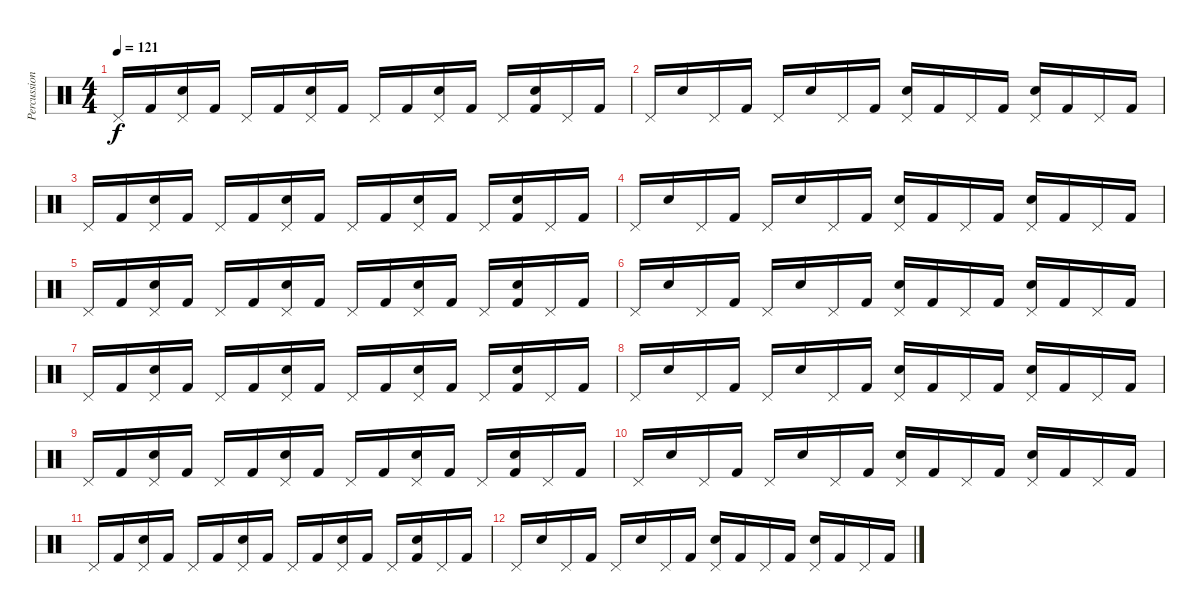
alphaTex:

\track ("Percussion" "Percussion") {instrument percussion}
\staff {score}
\articulation defaults
\ts (4 4)
\tempo 121
\clef neutral
\ks c "Pedal Hi-Hat (hit)".16{dy f} "Kick (hit) 2".16
("Pedal Hi-Hat (hit)" "Electric Snare (hit)").16 "Kick (hit) 2".16 "Pedal Hi-Hat (hit)".16 "Kick (hit) 2".16 ("Pedal Hi-Hat (hit)" "Electric Snare (hit)").16 "Kick (hit) 2".16 "Pedal Hi-Hat (hit)".16 "Kick (hit) 2".16 ("Pedal Hi-Hat (hit)" "Electric Snare (hit)").16 "Kick (hit) 2".16 "Pedal Hi-Hat (hit)".16 ("Electric Snare (hit)" "Kick (hit) 2").16 "Pedal Hi-Hat (hit)".16 "Kick (hit) 2".16 |
"Pedal Hi-Hat (hit)".16 "Electric Snare (hit)".16 "Pedal Hi-Hat (hit)".16 "Kick (hit) 2".16 "Pedal Hi-Hat (hit)".16 "Electric Snare (hit)".16 "Pedal Hi-Hat (hit)".16 "Kick (hit) 2".16 ("Pedal Hi-Hat (hit)" "Electric Snare (hit)").16 "Kick (hit) 2".16 "Pedal Hi-Hat (hit)".16 "Kick (hit) 2".16 ("Pedal Hi-Hat (hit)" "Electric Snare (hit)").16 "Kick (hit) 2".16 "Pedal Hi-Hat (hit)".16 "Kick (hit) 2".16 |
"Pedal Hi-Hat (hit)".16 "Kick (hit) 2".16 ("Pedal Hi-Hat (hit)" "Electric Snare (hit)").16 "Kick (hit) 2".16 "Pedal Hi-Hat (hit)".16 "Kick (hit) 2".16 ("Pedal Hi-Hat (hit)" "Electric Snare (hit)").16 "Kick (hit) 2".16 "Pedal Hi-Hat (hit)".16 "Kick (hit) 2".16 ("Pedal Hi-Hat (hit)" "Electric Snare (hit)").16 "Kick (hit) 2".16 "Pedal Hi-Hat (hit)".16 ("Electric Snare (hit)" "Kick (hit) 2").16 "Pedal Hi-Hat (hit)".16 "Kick (hit) 2".16 |
"Pedal Hi-Hat (hit)".16 "Electric Snare (hit)".16 "Pedal Hi-Hat (hit)".16 "Kick (hit) 2".16 "Pedal Hi-Hat (hit)".16 "Electric Snare (hit)".16 "Pedal Hi-Hat (hit)".16 "Kick (hit) 2".16 ("Pedal Hi-Hat (hit)" "Electric Snare (hit)").16 "Kick (hit) 2".16 "Pedal Hi-Hat (hit)".16 "Kick (hit) 2".16 ("Pedal Hi-Hat (hit)" "Electric Snare (hit)").16 "Kick (hit) 2".16 "Pedal Hi-Hat (hit)".16 "Kick (hit) 2".16 |
"Pedal Hi-Hat (hit)".16 "Kick (hit) 2".16 ("Pedal Hi-Hat (hit)" "Electric Snare (hit)").16 "Kick (hit) 2".16 "Pedal Hi-Hat (hit)".16 "Kick (hit) 2".16 ("Pedal Hi-Hat (hit)" "Electric Snare (hit)").16 "Kick (hit) 2".16 "Pedal Hi-Hat (hit)".16 "Kick (hit) 2".16 ("Pedal Hi-Hat (hit)" "Electric Snare (hit)").16 "Kick (hit) 2".16 "Pedal Hi-Hat (hit)".16 ("Electric Snare (hit)" "Kick (hit) 2").16 "Pedal Hi-Hat (hit)".16 "Kick (hit) 2".16 |
"Pedal Hi-Hat (hit)".16 "Electric Snare (hit)".16 "Pedal Hi-Hat (hit)".16 "Kick (hit) 2".16 "Pedal Hi-Hat (hit)".16 "Electric Snare (hit)".16 "Pedal Hi-Hat (hit)".16 "Kick (hit) 2".16 ("Pedal Hi-Hat (hit)" "Electric Snare (hit)").16 "Kick (hit) 2".16 "Pedal Hi-Hat (hit)".16 "Kick (hit) 2".16 ("Pedal Hi-Hat (hit)" "Electric Snare (hit)").16 "Kick (hit) 2".16 "Pedal Hi-Hat (hit)".16 "Kick (hit) 2".16 |
"Pedal Hi-Hat (hit)".16 "Kick (hit) 2".16 ("Pedal Hi-Hat (hit)" "Electric Snare (hit)").16 "Kick (hit) 2".16 "Pedal Hi-Hat (hit)".16 "Kick (hit) 2".16 ("Pedal Hi-Hat (hit)" "Electric Snare (hit)").16 "Kick (hit) 2".16 "Pedal Hi-Hat (hit)".16 "Kick (hit) 2".16 ("Pedal Hi-Hat (hit)" "Electric Snare (hit)").16 "Kick (hit) 2".16 "Pedal Hi-Hat (hit)".16 ("Electric Snare (hit)" "Kick (hit) 2").16 "Pedal Hi-Hat (hit)".16 "Kick (hit) 2".16 |
"Pedal Hi-Hat (hit)".16 "Electric Snare (hit)".16 "Pedal Hi-Hat (hit)".16 "Kick (hit) 2".16 "Pedal Hi-Hat (hit)".16 "Electric Snare (hit)".16 "Pedal Hi-Hat (hit)".16 "Kick (hit) 2".16 ("Pedal Hi-Hat (hit)" "Electric Snare (hit)").16 "Kick (hit) 2".16 "Pedal Hi-Hat (hit)".16 "Kick (hit) 2".16 ("Pedal Hi-Hat (hit)" "Electric Snare (hit)").16 "Kick (hit) 2".16 "Pedal Hi-Hat (hit)".16 "Kick (hit) 2".16 |
"Pedal Hi-Hat (hit)".16 "Kick (hit) 2".16 ("Pedal Hi-Hat (hit)" "Electric Snare (hit)").16 "Kick (hit) 2".16 "Pedal Hi-Hat (hit)".16 "Kick (hit) 2".16 ("Pedal Hi-Hat (hit)" "Electric Snare (hit)").16 "Kick (hit) 2".16 "Pedal Hi-Hat (hit)".16 "Kick (hit) 2".16 ("Pedal Hi-Hat (hit)" "Electric Snare (hit)").16 "Kick (hit) 2".16 "Pedal Hi-Hat (hit)".16 ("Electric Snare (hit)" "Kick (hit) 2").16 "Pedal Hi-Hat (hit)".16 "Kick (hit) 2".16 |
"Pedal Hi-Hat (hit)".16 "Electric Snare (hit)".16 "Pedal Hi-Hat (hit)".16 "Kick (hit) 2".16 "Pedal Hi-Hat (hit)".16 "Electric Snare (hit)".16 "Pedal Hi-Hat (hit)".16 "Kick (hit) 2".16 ("Pedal Hi-Hat (hit)" "Electric Snare (hit)").16 "Kick (hit) 2".16 "Pedal Hi-Hat (hit)".16 "Kick (hit) 2".16 ("Pedal Hi-Hat (hit)" "Electric Snare (hit)").16 "Kick (hit) 2".16 "Pedal Hi-Hat (hit)".16 "Kick (hit) 2".16 |
"Pedal Hi-Hat (hit)".16 "Kick (hit) 2".16 ("Pedal Hi-Hat (hit)" "Electric Snare (hit)").16 "Kick (hit) 2".16 "Pedal Hi-Hat (hit)".16 "Kick (hit) 2".16 ("Pedal Hi-Hat (hit)" "Electric Snare (hit)").16 "Kick (hit) 2".16 "Pedal Hi-Hat (hit)".16 "Kick (hit) 2".16 ("Pedal Hi-Hat (hit)" "Electric Snare (hit)").16 "Kick (hit) 2".16 "Pedal Hi-Hat (hit)".16 ("Electric Snare (hit)" "Kick (hit) 2").16 "Pedal Hi-Hat (hit)".16 "Kick (hit) 2".16 |
"Pedal Hi-Hat (hit)".16 "Electric Snare (hit)".16 "Pedal Hi-Hat (hit)".16 "Kick (hit) 2".16 "Pedal Hi-Hat (hit)".16 "Electric Snare (hit)".16 "Pedal Hi-Hat (hit)".16 "Kick (hit) 2".16 ("Pedal Hi-Hat (hit)" "Electric Snare (hit)").16 "Kick (hit) 2".16 "Pedal Hi-Hat (hit)".16 "Kick (hit) 2".16 ("Pedal Hi-Hat (hit)" "Electric Snare (hit)").16 "Kick (hit) 2".16 "Pedal Hi-Hat (hit)".16 "Kick (hit) 2".16
